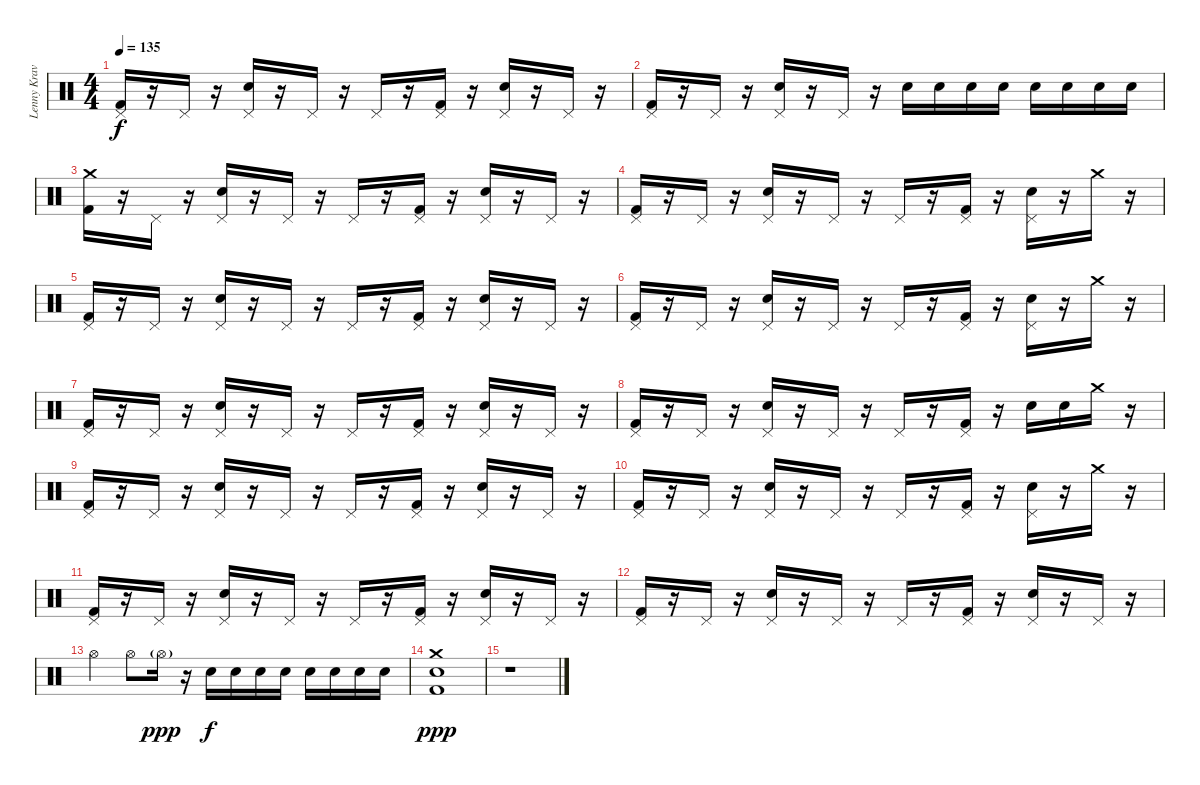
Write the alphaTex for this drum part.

\track ("Lenny Kravitz (drums)" "Lenny Krav") {instrument percussion}
\staff {score}
\articulation defaults
\ts (4 4)
\tempo 135
\clef neutral
\ks c
("Pedal Hi-Hat (hit)" "Kick (hit) 2").16{dy f} r.16 "Pedal Hi-Hat (hit)".16 r.16 ("Pedal Hi-Hat (hit)" "Electric Snare (hit)").16 r.16 "Pedal Hi-Hat (hit)".16 r.16 "Pedal Hi-Hat (hit)".16 r.16 ("Pedal Hi-Hat (hit)" "Kick (hit) 2").16 r.16 ("Pedal Hi-Hat (hit)" "Electric Snare (hit)").16 r.16 "Pedal Hi-Hat (hit)".16 r.16 |
("Pedal Hi-Hat (hit)" "Kick (hit) 2").16 r.16 "Pedal Hi-Hat (hit)".16 r.16 ("Pedal Hi-Hat (hit)" "Electric Snare (hit)").16 r.16 "Pedal Hi-Hat (hit)".16 r.16 "Electric Snare (hit)".16 "Electric Snare (hit)".16 "Electric Snare (hit)".16 "Electric Snare (hit)".16 "Electric Snare (hit)".16 "Electric Snare (hit)".16 "Electric Snare (hit)".16 "Electric Snare (hit)".16 |
("Crash medium (hit)" "Kick (hit) 2").16 r.16 "Pedal Hi-Hat (hit)".16 r.16 ("Pedal Hi-Hat (hit)" "Electric Snare (hit)").16 r.16 "Pedal Hi-Hat (hit)".16 r.16 "Pedal Hi-Hat (hit)".16 r.16 ("Pedal Hi-Hat (hit)" "Kick (hit) 2").16 r.16 ("Pedal Hi-Hat (hit)" "Electric Snare (hit)").16 r.16 "Pedal Hi-Hat (hit)".16 r.16 |
("Pedal Hi-Hat (hit)" "Kick (hit) 2").16 r.16 "Pedal Hi-Hat (hit)".16 r.16 ("Pedal Hi-Hat (hit)" "Electric Snare (hit)").16 r.16 "Pedal Hi-Hat (hit)".16 r.16 "Pedal Hi-Hat (hit)".16 r.16 ("Pedal Hi-Hat (hit)" "Kick (hit) 2").16 r.16 ("Pedal Hi-Hat (hit)" "Electric Snare (hit)").16 r.16 "Crash medium (hit)".16 r.16 |
("Pedal Hi-Hat (hit)" "Kick (hit) 2").16 r.16 "Pedal Hi-Hat (hit)".16 r.16 ("Pedal Hi-Hat (hit)" "Electric Snare (hit)").16 r.16 "Pedal Hi-Hat (hit)".16 r.16 "Pedal Hi-Hat (hit)".16 r.16 ("Pedal Hi-Hat (hit)" "Kick (hit) 2").16 r.16 ("Pedal Hi-Hat (hit)" "Electric Snare (hit)").16 r.16 "Pedal Hi-Hat (hit)".16 r.16 |
("Pedal Hi-Hat (hit)" "Kick (hit) 2").16 r.16 "Pedal Hi-Hat (hit)".16 r.16 ("Pedal Hi-Hat (hit)" "Electric Snare (hit)").16 r.16 "Pedal Hi-Hat (hit)".16 r.16 "Pedal Hi-Hat (hit)".16 r.16 ("Pedal Hi-Hat (hit)" "Kick (hit) 2").16 r.16 ("Pedal Hi-Hat (hit)" "Electric Snare (hit)").16 r.16 "Crash medium (hit)".16 r.16 |
("Pedal Hi-Hat (hit)" "Kick (hit) 2").16 r.16 "Pedal Hi-Hat (hit)".16 r.16 ("Pedal Hi-Hat (hit)" "Electric Snare (hit)").16 r.16 "Pedal Hi-Hat (hit)".16 r.16 "Pedal Hi-Hat (hit)".16 r.16 ("Pedal Hi-Hat (hit)" "Kick (hit) 2").16 r.16 ("Pedal Hi-Hat (hit)" "Electric Snare (hit)").16 r.16 "Pedal Hi-Hat (hit)".16 r.16 |
("Pedal Hi-Hat (hit)" "Kick (hit) 2").16 r.16 "Pedal Hi-Hat (hit)".16 r.16 ("Pedal Hi-Hat (hit)" "Electric Snare (hit)").16 r.16 "Pedal Hi-Hat (hit)".16 r.16 "Pedal Hi-Hat (hit)".16 r.16 ("Pedal Hi-Hat (hit)" "Kick (hit) 2").16 r.16 "Electric Snare (hit)".16 "Electric Snare (hit)".16 "Crash medium (hit)".16 r.16 |
("Pedal Hi-Hat (hit)" "Kick (hit) 2").16 r.16 "Pedal Hi-Hat (hit)".16 r.16 ("Pedal Hi-Hat (hit)" "Electric Snare (hit)").16 r.16 "Pedal Hi-Hat (hit)".16 r.16 "Pedal Hi-Hat (hit)".16 r.16 ("Pedal Hi-Hat (hit)" "Kick (hit) 2").16 r.16 ("Pedal Hi-Hat (hit)" "Electric Snare (hit)").16 r.16 "Pedal Hi-Hat (hit)".16 r.16 |
("Pedal Hi-Hat (hit)" "Kick (hit) 2").16 r.16 "Pedal Hi-Hat (hit)".16 r.16 ("Pedal Hi-Hat (hit)" "Electric Snare (hit)").16 r.16 "Pedal Hi-Hat (hit)".16 r.16 "Pedal Hi-Hat (hit)".16 r.16 ("Pedal Hi-Hat (hit)" "Kick (hit) 2").16 r.16 ("Pedal Hi-Hat (hit)" "Electric Snare (hit)").16 r.16 "Crash medium (hit)".16 r.16 |
("Pedal Hi-Hat (hit)" "Kick (hit) 2").16 r.16 "Pedal Hi-Hat (hit)".16 r.16 ("Pedal Hi-Hat (hit)" "Electric Snare (hit)").16 r.16 "Pedal Hi-Hat (hit)".16 r.16 "Pedal Hi-Hat (hit)".16 r.16 ("Pedal Hi-Hat (hit)" "Kick (hit) 2").16 r.16 ("Pedal Hi-Hat (hit)" "Electric Snare (hit)").16 r.16 "Pedal Hi-Hat (hit)".16 r.16 |
("Pedal Hi-Hat (hit)" "Kick (hit) 2").16 r.16 "Pedal Hi-Hat (hit)".16 r.16 ("Pedal Hi-Hat (hit)" "Electric Snare (hit)").16 r.16 "Pedal Hi-Hat (hit)".16 r.16 "Pedal Hi-Hat (hit)".16 r.16 ("Pedal Hi-Hat (hit)" "Kick (hit) 2").16 r.16 ("Pedal Hi-Hat (hit)" "Electric Snare (hit)").16 r.16 "Pedal Hi-Hat (hit)".16 r.16 |
"Hi-Hat (open)".4 "Hi-Hat (open)".8 "Hi-Hat (open)"{g}.16{dy ppp} r.16 "Electric Snare (hit)".16{dy f} "Electric Snare (hit)".16 "Electric Snare (hit)".16 "Electric Snare (hit)".16 "Electric Snare (hit)".16 "Electric Snare (hit)".16 "Electric Snare (hit)".16 "Electric Snare (hit)".16 |
("Crash medium (hit)" "Electric Snare (hit)" "Kick (hit) 2").1{dy ppp} |
r.1
